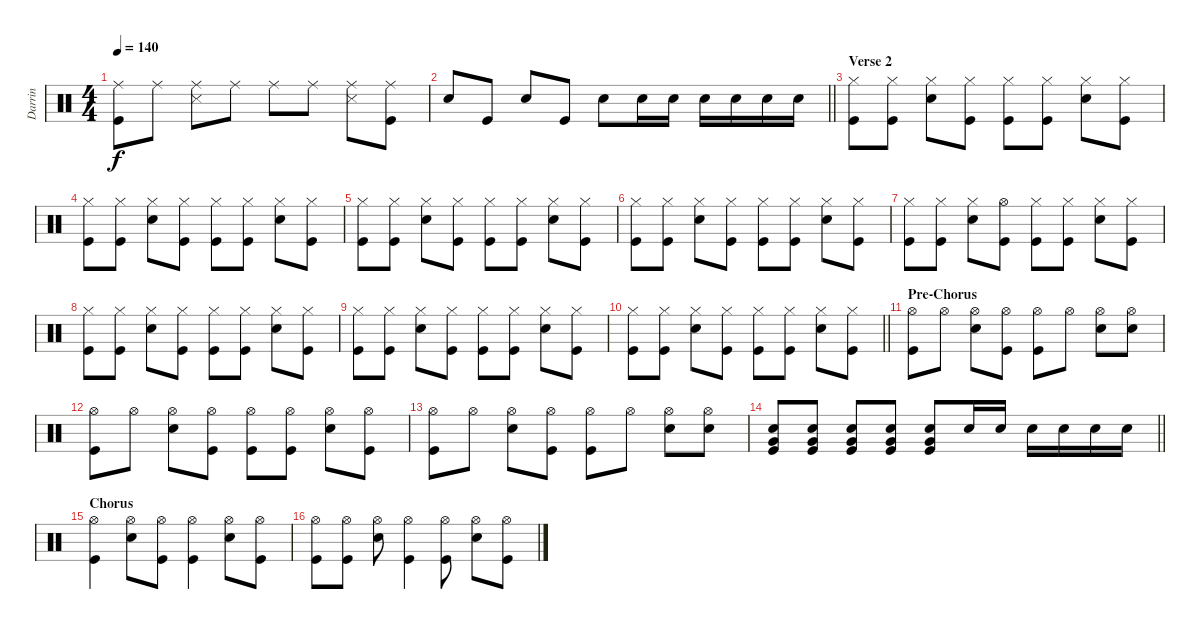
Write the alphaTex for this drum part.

\track ("Darrin" "Darrin") {instrument percussion}
\staff {score}
\articulation defaults
\ts (4 4)
\tempo 140
\clef neutral
\ks c
("Ride (middle)" "Kick (hit)").8{dy f} "Ride (middle)".8 ("Ride (middle)" "Metronome (hit)").8 "Ride (middle)".8 "Ride (middle)".8 "Ride (middle)".8 ("Ride (middle)" "Metronome (hit)").8 ("Ride (middle)" "Kick (hit)").8 |
\barLineRight lightlight "Snare (hit) 2".8 "Kick (hit)".8 "Snare (hit) 2".8 "Kick (hit)".8 "Snare (hit) 2".8 "Snare (hit) 2".16 "Snare (hit) 2".16 "Snare (hit) 2".16 "Snare (hit) 2".16 "Snare (hit) 2".16 "Snare (hit) 2".16
|
\section ("" "Verse 2")
("Hi-Hat (closed)" "Kick (hit)").8 ("Hi-Hat (closed)" "Kick (hit)").8 ("Hi-Hat (closed)" "Snare (hit) 2").8 ("Hi-Hat (closed)" "Kick (hit)").8 ("Hi-Hat (closed)" "Kick (hit)").8 ("Hi-Hat (closed)" "Kick (hit)").8 ("Hi-Hat (closed)" "Snare (hit) 2").8 ("Hi-Hat (closed)" "Kick (hit)").8 |
("Hi-Hat (closed)" "Kick (hit)").8 ("Hi-Hat (closed)" "Kick (hit)").8 ("Hi-Hat (closed)" "Snare (hit) 2").8 ("Hi-Hat (closed)" "Kick (hit)").8 ("Hi-Hat (closed)" "Kick (hit)").8 ("Hi-Hat (closed)" "Kick (hit)").8 ("Hi-Hat (closed)" "Snare (hit) 2").8 ("Hi-Hat (closed)" "Kick (hit)").8 |
("Hi-Hat (closed)" "Kick (hit)").8 ("Hi-Hat (closed)" "Kick (hit)").8 ("Hi-Hat (closed)" "Snare (hit) 2").8 ("Hi-Hat (closed)" "Kick (hit)").8 ("Hi-Hat (closed)" "Kick (hit)").8 ("Hi-Hat (closed)" "Kick (hit)").8 ("Hi-Hat (closed)" "Snare (hit) 2").8 ("Hi-Hat (closed)" "Kick (hit)").8 |
("Hi-Hat (closed)" "Kick (hit)").8 ("Hi-Hat (closed)" "Kick (hit)").8 ("Hi-Hat (closed)" "Snare (hit) 2").8 ("Hi-Hat (closed)" "Kick (hit)").8 ("Hi-Hat (closed)" "Kick (hit)").8 ("Hi-Hat (closed)" "Kick (hit)").8 ("Hi-Hat (closed)" "Snare (hit) 2").8 ("Hi-Hat (closed)" "Kick (hit)").8 |
("Hi-Hat (closed)" "Kick (hit)").8 ("Hi-Hat (closed)" "Kick (hit)").8 ("Hi-Hat (closed)" "Snare (hit) 2").8 ("Hi-Hat (open)" "Kick (hit)").8 ("Hi-Hat (closed)" "Kick (hit)").8 ("Hi-Hat (closed)" "Kick (hit)").8 ("Hi-Hat (closed)" "Snare (hit) 2").8 ("Hi-Hat (closed)" "Kick (hit)").8 |
("Hi-Hat (closed)" "Kick (hit)").8 ("Hi-Hat (closed)" "Kick (hit)").8 ("Hi-Hat (closed)" "Snare (hit) 2").8 ("Hi-Hat (closed)" "Kick (hit)").8 ("Hi-Hat (closed)" "Kick (hit)").8 ("Hi-Hat (closed)" "Kick (hit)").8 ("Hi-Hat (closed)" "Snare (hit) 2").8 ("Hi-Hat (closed)" "Kick (hit)").8 |
("Hi-Hat (closed)" "Kick (hit)").8 ("Hi-Hat (closed)" "Kick (hit)").8 ("Hi-Hat (closed)" "Snare (hit) 2").8 ("Hi-Hat (closed)" "Kick (hit)").8 ("Hi-Hat (closed)" "Kick (hit)").8 ("Hi-Hat (closed)" "Kick (hit)").8 ("Hi-Hat (closed)" "Snare (hit) 2").8 ("Hi-Hat (closed)" "Kick (hit)").8 |
\barLineRight lightlight
("Hi-Hat (closed)" "Kick (hit)").8 ("Hi-Hat (closed)" "Kick (hit)").8 ("Hi-Hat (closed)" "Snare (hit) 2").8 ("Hi-Hat (closed)" "Kick (hit)").8 ("Hi-Hat (closed)" "Kick (hit)").8 ("Hi-Hat (closed)" "Kick (hit)").8 ("Hi-Hat (closed)" "Snare (hit) 2").8 ("Hi-Hat (closed)" "Kick (hit)").8 |
\section ("" "Pre-Chorus")
("Hi-Hat (open)" "Kick (hit)").8 "Hi-Hat (open)".8 ("Hi-Hat (open)" "Snare (hit) 2").8 ("Hi-Hat (open)" "Kick (hit)").8 ("Hi-Hat (open)" "Kick (hit)").8 "Hi-Hat (open)".8 ("Hi-Hat (open)" "Snare (hit) 2").8 ("Hi-Hat (open)" "Snare (hit) 2").8 |
("Hi-Hat (open)" "Kick (hit)").8 "Hi-Hat (open)".8 ("Hi-Hat (open)" "Snare (hit) 2").8 ("Hi-Hat (open)" "Kick (hit)").8 ("Hi-Hat (open)" "Kick (hit)").8 ("Hi-Hat (open)" "Kick (hit)").8 ("Hi-Hat (open)" "Snare (hit) 2").8 ("Hi-Hat (open)" "Kick (hit)").8 |
("Hi-Hat (open)" "Kick (hit)").8 "Hi-Hat (open)".8 ("Hi-Hat (open)" "Snare (hit) 2").8 ("Hi-Hat (open)" "Kick (hit)").8 ("Hi-Hat (open)" "Kick (hit)").8 "Hi-Hat (open)".8 ("Hi-Hat (open)" "Snare (hit) 2").8 ("Hi-Hat (open)" "Snare (hit) 2").8 |
\barLineRight lightlight
("Snare (hit) 2" "Very Low Tom (hit)" "Kick (hit)").8 ("Snare (hit) 2" "Very Low Tom (hit)" "Kick (hit)").8 ("Snare (hit) 2" "Very Low Tom (hit)" "Kick (hit)").8 ("Snare (hit) 2" "Very Low Tom (hit)" "Kick (hit)").8 ("Snare (hit) 2" "Very Low Tom (hit)" "Kick (hit)").8 "Snare (hit) 2".16 "Snare (hit) 2".16 "Snare (hit) 2".16 "Snare (hit) 2".16 "Snare (hit) 2".16 "Snare (hit) 2".16 |
\section ("" "Chorus")
("Hi-Hat (open)" "Kick (hit)").4 ("Hi-Hat (open)" "Snare (hit) 2").8 ("Hi-Hat (open)" "Kick (hit)").8 ("Hi-Hat (open)" "Kick (hit)").4 ("Hi-Hat (open)" "Snare (hit) 2").8 ("Hi-Hat (open)" "Kick (hit)").8 |
("Hi-Hat (open)" "Kick (hit)").8 ("Hi-Hat (open)" "Kick (hit)").8 ("Hi-Hat (open)" "Snare (hit) 2").8 ("Hi-Hat (open)" "Kick (hit)").4 ("Hi-Hat (open)" "Kick (hit)").8 ("Hi-Hat (open)" "Snare (hit) 2").8 ("Hi-Hat (open)" "Kick (hit)").8
